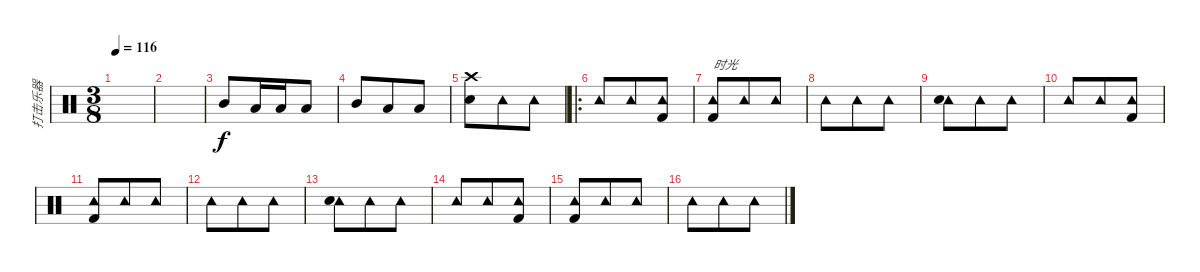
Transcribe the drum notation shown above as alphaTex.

\track ("打击乐器" "打击乐器") {instrument percussion}
\staff {score}
\articulation defaults
\ts (3 8)
\tempo 116
\clef neutral
\ks c
|
|
"Mid Tom (hit)".8 "Low Tom (hit)".16 "Low Floor Tom (hit)".16 "Low Floor Tom (hit)".8 |
"Mid Tom (hit)".8 "Low Tom (hit)".8 "Low Floor Tom (hit)".8 |
("Crash high (hit)" "Snare (hit) 2").8 "Tambourine (hit)".8 "Tambourine (hit)".8 |
\ro "Tambourine (hit)".8 "Tambourine (hit)".8
("Tambourine (hit)" "Kick (hit) 2").8 |
("Tambourine (hit)" "Kick (hit) 2").8{txt "时光"} "Tambourine (hit)".8 "Tambourine (hit)".8 |
"Tambourine (hit)".8 "Tambourine (hit)".8 "Tambourine (hit)".8 |
("Tambourine (hit)" "Snare (hit) 2").8 "Tambourine (hit)".8 "Tambourine (hit)".8 |
"Tambourine (hit)".8 "Tambourine (hit)".8 ("Tambourine (hit)" "Kick (hit) 2").8 |
("Tambourine (hit)" "Kick (hit) 2").8 "Tambourine (hit)".8 "Tambourine (hit)".8 |
"Tambourine (hit)".8 "Tambourine (hit)".8 "Tambourine (hit)".8 |
("Tambourine (hit)" "Snare (hit) 2").8 "Tambourine (hit)".8 "Tambourine (hit)".8 |
"Tambourine (hit)".8 "Tambourine (hit)".8 ("Tambourine (hit)" "Kick (hit) 2").8 |
("Tambourine (hit)" "Kick (hit) 2").8 "Tambourine (hit)".8 "Tambourine (hit)".8 |
"Tambourine (hit)".8 "Tambourine (hit)".8 "Tambourine (hit)".8
